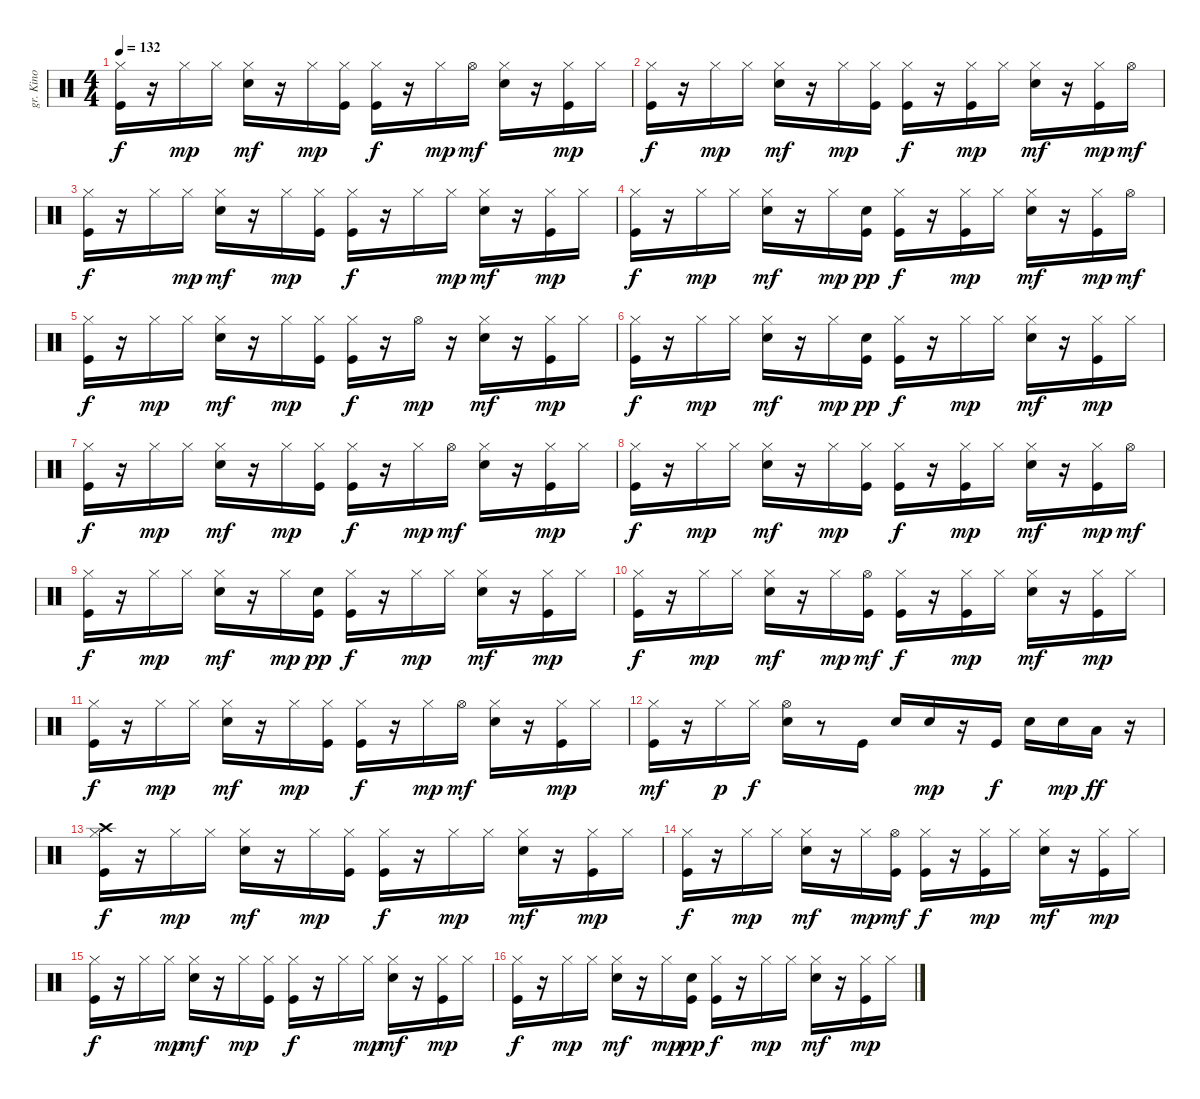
\track ("gr. Kino" "gr. Kino") {instrument percussion}
\staff {score}
\articulation defaults
\ts (4 4)
\tempo 132
\clef neutral
\ks c
("Kick (hit)" "Hi-Hat (closed)").16{dy f} r.16 "Hi-Hat (closed)".16{dy mp} "Hi-Hat (closed)".16 ("Snare (hit) 2" "Hi-Hat (closed)").16{dy mf} r.16 "Hi-Hat (closed)".16{dy mp} ("Kick (hit)" "Hi-Hat (closed)").16 ("Kick (hit)" "Hi-Hat (closed)").16{dy f} r.16 "Hi-Hat (closed)".16{dy mp} "Hi-Hat (open)".16{dy mf} ("Snare (hit) 2" "Hi-Hat (closed)").16 r.16 ("Kick (hit)" "Hi-Hat (closed)").16{dy mp} "Hi-Hat (closed)".16 |
("Kick (hit)" "Hi-Hat (closed)").16{dy f} r.16 "Hi-Hat (closed)".16{dy mp} "Hi-Hat (closed)".16 ("Snare (hit) 2" "Hi-Hat (closed)").16{dy mf} r.16 "Hi-Hat (closed)".16{dy mp} ("Kick (hit)" "Hi-Hat (closed)").16 ("Kick (hit)" "Hi-Hat (closed)").16{dy f} r.16 ("Kick (hit)" "Hi-Hat (closed)").16{dy mp} "Hi-Hat (closed)".16 ("Snare (hit) 2" "Hi-Hat (closed)").16{dy mf} r.16 ("Kick (hit)" "Hi-Hat (closed)").16{dy mp} "Hi-Hat (open)".16{dy mf} |
("Kick (hit)" "Hi-Hat (closed)").16{dy f} r.16 "Hi-Hat (closed)".16 "Hi-Hat (closed)".16{dy mp} ("Snare (hit) 2" "Hi-Hat (closed)").16{dy mf} r.16 "Hi-Hat (closed)".16{dy mp} ("Kick (hit)" "Hi-Hat (closed)").16 ("Kick (hit)" "Hi-Hat (closed)").16{dy f} r.16 "Hi-Hat (closed)".16 "Hi-Hat (closed)".16{dy mp} ("Snare (hit) 2" "Hi-Hat (closed)").16{dy mf} r.16 ("Kick (hit)" "Hi-Hat (closed)").16{dy mp} "Hi-Hat (closed)".16 |
("Kick (hit)" "Hi-Hat (closed)").16{dy f} r.16 "Hi-Hat (closed)".16{dy mp} "Hi-Hat (closed)".16 ("Snare (hit) 2" "Hi-Hat (closed)").16{dy mf} r.16 "Hi-Hat (closed)".16{dy mp} ("Kick (hit)" "Snare (hit) 2").16{dy pp} ("Kick (hit)" "Hi-Hat (closed)").16{dy f} r.16 ("Kick (hit)" "Hi-Hat (closed)").16{dy mp} "Hi-Hat (closed)".16 ("Snare (hit) 2" "Hi-Hat (closed)").16{dy mf} r.16 ("Kick (hit)" "Hi-Hat (closed)").16{dy mp} "Hi-Hat (open)".16{dy mf} |
("Kick (hit)" "Hi-Hat (closed)").16{dy f} r.16 "Hi-Hat (closed)".16{dy mp} "Hi-Hat (closed)".16 ("Snare (hit) 2" "Hi-Hat (closed)").16{dy mf} r.16 "Hi-Hat (closed)".16{dy mp} ("Kick (hit)" "Hi-Hat (closed)").16 ("Kick (hit)" "Hi-Hat (closed)").16{dy f} r.16 "Hi-Hat (open)".16{dy mp} r.16 ("Snare (hit) 2" "Hi-Hat (closed)").16{dy mf} r.16 ("Kick (hit)" "Hi-Hat (closed)").16{dy mp} "Hi-Hat (closed)".16 |
("Kick (hit)" "Hi-Hat (closed)").16{dy f} r.16 "Hi-Hat (closed)".16{dy mp} "Hi-Hat (closed)".16 ("Snare (hit) 2" "Hi-Hat (closed)").16{dy mf} r.16 "Hi-Hat (closed)".16{dy mp} ("Kick (hit)" "Snare (hit) 2").16{dy pp} ("Kick (hit)" "Hi-Hat (closed)").16{dy f} r.16 "Hi-Hat (closed)".16{dy mp} "Hi-Hat (closed)".16 ("Snare (hit) 2" "Hi-Hat (closed)").16{dy mf} r.16 ("Kick (hit)" "Hi-Hat (closed)").16{dy mp} "Hi-Hat (closed)".16 |
("Kick (hit)" "Hi-Hat (closed)").16{dy f} r.16 "Hi-Hat (closed)".16{dy mp} "Hi-Hat (closed)".16 ("Snare (hit) 2" "Hi-Hat (closed)").16{dy mf} r.16 "Hi-Hat (closed)".16{dy mp} ("Kick (hit)" "Hi-Hat (closed)").16 ("Kick (hit)" "Hi-Hat (closed)").16{dy f} r.16 "Hi-Hat (closed)".16{dy mp} "Hi-Hat (open)".16{dy mf} ("Snare (hit) 2" "Hi-Hat (closed)").16 r.16 ("Kick (hit)" "Hi-Hat (closed)").16{dy mp} "Hi-Hat (closed)".16 |
("Kick (hit)" "Hi-Hat (closed)").16{dy f} r.16 "Hi-Hat (closed)".16{dy mp} "Hi-Hat (closed)".16 ("Snare (hit) 2" "Hi-Hat (closed)").16{dy mf} r.16 "Hi-Hat (closed)".16{dy mp} ("Kick (hit)" "Hi-Hat (closed)").16 ("Kick (hit)" "Hi-Hat (closed)").16{dy f} r.16 ("Kick (hit)" "Hi-Hat (closed)").16{dy mp} "Hi-Hat (closed)".16 ("Snare (hit) 2" "Hi-Hat (closed)").16{dy mf} r.16 ("Kick (hit)" "Hi-Hat (closed)").16{dy mp} "Hi-Hat (open)".16{dy mf} |
("Kick (hit)" "Hi-Hat (closed)").16{dy f} r.16 "Hi-Hat (closed)".16{dy mp} "Hi-Hat (closed)".16 ("Snare (hit) 2" "Hi-Hat (closed)").16{dy mf} r.16 "Hi-Hat (closed)".16{dy mp} ("Kick (hit)" "Snare (hit) 2").16{dy pp} ("Kick (hit)" "Hi-Hat (closed)").16{dy f} r.16 "Hi-Hat (closed)".16{dy mp} "Hi-Hat (closed)".16 ("Snare (hit) 2" "Hi-Hat (closed)").16{dy mf} r.16 ("Kick (hit)" "Hi-Hat (closed)").16{dy mp} "Hi-Hat (closed)".16 |
("Kick (hit)" "Hi-Hat (closed)").16{dy f} r.16 "Hi-Hat (closed)".16{dy mp} "Hi-Hat (closed)".16 ("Snare (hit) 2" "Hi-Hat (closed)").16{dy mf} r.16 "Hi-Hat (closed)".16{dy mp} ("Kick (hit)" "Hi-Hat (open)").16{dy mf} ("Kick (hit)" "Hi-Hat (closed)").16{dy f} r.16 ("Kick (hit)" "Hi-Hat (closed)").16{dy mp} "Hi-Hat (closed)".16 ("Snare (hit) 2" "Hi-Hat (closed)").16{dy mf} r.16 ("Kick (hit)" "Hi-Hat (closed)").16{dy mp} "Hi-Hat (closed)".16 |
("Kick (hit)" "Hi-Hat (closed)").16{dy f} r.16 "Hi-Hat (closed)".16{dy mp} "Hi-Hat (closed)".16 ("Snare (hit) 2" "Hi-Hat (closed)").16{dy mf} r.16 "Hi-Hat (closed)".16{dy mp} ("Kick (hit)" "Hi-Hat (closed)").16 ("Kick (hit)" "Hi-Hat (closed)").16{dy f} r.16 "Hi-Hat (closed)".16{dy mp} "Hi-Hat (open)".16{dy mf} ("Snare (hit) 2" "Hi-Hat (closed)").16 r.16 ("Kick (hit)" "Hi-Hat (closed)").16{dy mp} "Hi-Hat (closed)".16 |
("Kick (hit)" "Hi-Hat (closed)").16{dy mf} r.16 "Hi-Hat (closed)".16{dy p} "Hi-Hat (closed)".16{dy f} ("Snare (hit) 2" "Hi-Hat (open)").16 r.8 "Kick (hit)".16 "Snare (hit) 2".16 "Snare (hit) 2".16{dy mp} r.16 "Kick (hit)".16{dy f} "Snare (hit) 2".16 "Snare (hit) 2".16{dy mp} "Low Floor Tom (hit)".16{dy ff} r.16 |
("Kick (hit)" "Hi-Hat (closed)" "Crash high (hit)").16{dy f} r.16 "Hi-Hat (closed)".16{dy mp} "Hi-Hat (closed)".16 ("Snare (hit) 2" "Hi-Hat (closed)").16{dy mf} r.16 "Hi-Hat (closed)".16{dy mp} ("Kick (hit)" "Hi-Hat (closed)").16 ("Kick (hit)" "Hi-Hat (closed)").16{dy f} r.16 "Hi-Hat (closed)".16{dy mp} "Hi-Hat (closed)".16 ("Snare (hit) 2" "Hi-Hat (closed)").16{dy mf} r.16 ("Kick (hit)" "Hi-Hat (closed)").16{dy mp} "Hi-Hat (closed)".16 |
("Kick (hit)" "Hi-Hat (closed)").16{dy f} r.16 "Hi-Hat (closed)".16{dy mp} "Hi-Hat (closed)".16 ("Snare (hit) 2" "Hi-Hat (closed)").16{dy mf} r.16 "Hi-Hat (closed)".16{dy mp} ("Kick (hit)" "Hi-Hat (open)").16{dy mf} ("Kick (hit)" "Hi-Hat (closed)").16{dy f} r.16 ("Kick (hit)" "Hi-Hat (closed)").16{dy mp} "Hi-Hat (closed)".16 ("Snare (hit) 2" "Hi-Hat (closed)").16{dy mf} r.16 ("Kick (hit)" "Hi-Hat (closed)").16{dy mp} "Hi-Hat (closed)".16 |
("Kick (hit)" "Hi-Hat (closed)").16{dy f} r.16 "Hi-Hat (closed)".16 "Hi-Hat (closed)".16{dy mp} ("Snare (hit) 2" "Hi-Hat (closed)").16{dy mf} r.16 "Hi-Hat (closed)".16{dy mp} ("Kick (hit)" "Hi-Hat (closed)").16 ("Kick (hit)" "Hi-Hat (closed)").16{dy f} r.16 "Hi-Hat (closed)".16 "Hi-Hat (closed)".16{dy mp} ("Snare (hit) 2" "Hi-Hat (closed)").16{dy mf} r.16 ("Kick (hit)" "Hi-Hat (closed)").16{dy mp} "Hi-Hat (closed)".16 |
("Kick (hit)" "Hi-Hat (closed)").16{dy f} r.16 "Hi-Hat (closed)".16{dy mp} "Hi-Hat (closed)".16 ("Snare (hit) 2" "Hi-Hat (closed)").16{dy mf} r.16 "Hi-Hat (closed)".16{dy mp} ("Kick (hit)" "Snare (hit) 2").16{dy pp} ("Kick (hit)" "Hi-Hat (closed)").16{dy f} r.16 "Hi-Hat (closed)".16{dy mp} "Hi-Hat (closed)".16 ("Snare (hit) 2" "Hi-Hat (closed)").16{dy mf} r.16 ("Kick (hit)" "Hi-Hat (closed)").16{dy mp} "Hi-Hat (closed)".16
